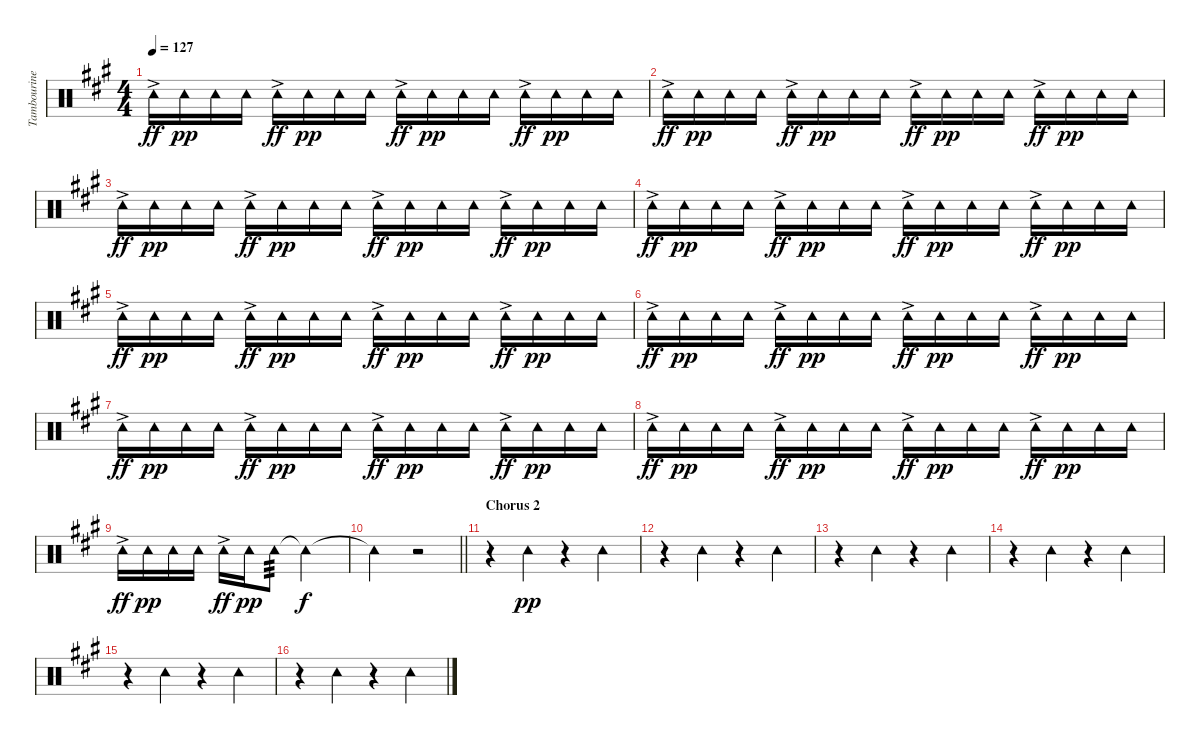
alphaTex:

\track ("Tambourine" "Tambourine") {instrument percussion}
\staff {score}
\articulation defaults
\ts (4 4)
\tempo 127
\clef neutral
\ks a "Tambourine (hit)"{ac}.16{dy ff} "Tambourine (hit)".16{dy pp} "Tambourine (hit)".16 "Tambourine (hit)".16 "Tambourine (hit)"{ac}.16{dy ff} "Tambourine (hit)".16{dy pp} "Tambourine (hit)".16 "Tambourine (hit)".16 "Tambourine (hit)"{ac}.16{dy ff} "Tambourine (hit)".16{dy pp} "Tambourine (hit)".16 "Tambourine (hit)".16 "Tambourine (hit)"{ac}.16{dy ff} "Tambourine (hit)".16{dy pp} "Tambourine (hit)".16 "Tambourine (hit)".16
|
"Tambourine (hit)"{ac}.16{dy ff} "Tambourine (hit)".16{dy pp} "Tambourine (hit)".16 "Tambourine (hit)".16 "Tambourine (hit)"{ac}.16{dy ff} "Tambourine (hit)".16{dy pp} "Tambourine (hit)".16 "Tambourine (hit)".16 "Tambourine (hit)"{ac}.16{dy ff} "Tambourine (hit)".16{dy pp} "Tambourine (hit)".16 "Tambourine (hit)".16 "Tambourine (hit)"{ac}.16{dy ff} "Tambourine (hit)".16{dy pp} "Tambourine (hit)".16 "Tambourine (hit)".16 |
"Tambourine (hit)"{ac}.16{dy ff} "Tambourine (hit)".16{dy pp} "Tambourine (hit)".16 "Tambourine (hit)".16 "Tambourine (hit)"{ac}.16{dy ff} "Tambourine (hit)".16{dy pp} "Tambourine (hit)".16 "Tambourine (hit)".16 "Tambourine (hit)"{ac}.16{dy ff} "Tambourine (hit)".16{dy pp} "Tambourine (hit)".16 "Tambourine (hit)".16 "Tambourine (hit)"{ac}.16{dy ff} "Tambourine (hit)".16{dy pp} "Tambourine (hit)".16 "Tambourine (hit)".16 |
"Tambourine (hit)"{ac}.16{dy ff} "Tambourine (hit)".16{dy pp} "Tambourine (hit)".16 "Tambourine (hit)".16 "Tambourine (hit)"{ac}.16{dy ff} "Tambourine (hit)".16{dy pp} "Tambourine (hit)".16 "Tambourine (hit)".16 "Tambourine (hit)"{ac}.16{dy ff} "Tambourine (hit)".16{dy pp} "Tambourine (hit)".16 "Tambourine (hit)".16 "Tambourine (hit)"{ac}.16{dy ff} "Tambourine (hit)".16{dy pp} "Tambourine (hit)".16 "Tambourine (hit)".16 |
"Tambourine (hit)"{ac}.16{dy ff} "Tambourine (hit)".16{dy pp} "Tambourine (hit)".16 "Tambourine (hit)".16 "Tambourine (hit)"{ac}.16{dy ff} "Tambourine (hit)".16{dy pp} "Tambourine (hit)".16 "Tambourine (hit)".16 "Tambourine (hit)"{ac}.16{dy ff} "Tambourine (hit)".16{dy pp} "Tambourine (hit)".16 "Tambourine (hit)".16 "Tambourine (hit)"{ac}.16{dy ff} "Tambourine (hit)".16{dy pp} "Tambourine (hit)".16 "Tambourine (hit)".16 |
"Tambourine (hit)"{ac}.16{dy ff} "Tambourine (hit)".16{dy pp} "Tambourine (hit)".16 "Tambourine (hit)".16 "Tambourine (hit)"{ac}.16{dy ff} "Tambourine (hit)".16{dy pp} "Tambourine (hit)".16 "Tambourine (hit)".16 "Tambourine (hit)"{ac}.16{dy ff} "Tambourine (hit)".16{dy pp} "Tambourine (hit)".16 "Tambourine (hit)".16 "Tambourine (hit)"{ac}.16{dy ff} "Tambourine (hit)".16{dy pp} "Tambourine (hit)".16 "Tambourine (hit)".16 |
"Tambourine (hit)"{ac}.16{dy ff} "Tambourine (hit)".16{dy pp} "Tambourine (hit)".16 "Tambourine (hit)".16 "Tambourine (hit)"{ac}.16{dy ff} "Tambourine (hit)".16{dy pp} "Tambourine (hit)".16 "Tambourine (hit)".16 "Tambourine (hit)"{ac}.16{dy ff} "Tambourine (hit)".16{dy pp} "Tambourine (hit)".16 "Tambourine (hit)".16 "Tambourine (hit)"{ac}.16{dy ff} "Tambourine (hit)".16{dy pp} "Tambourine (hit)".16 "Tambourine (hit)".16 |
"Tambourine (hit)"{ac}.16{dy ff} "Tambourine (hit)".16{dy pp} "Tambourine (hit)".16 "Tambourine (hit)".16 "Tambourine (hit)"{ac}.16{dy ff} "Tambourine (hit)".16{dy pp} "Tambourine (hit)".16 "Tambourine (hit)".16 "Tambourine (hit)"{ac}.16{dy ff} "Tambourine (hit)".16{dy pp} "Tambourine (hit)".16 "Tambourine (hit)".16 "Tambourine (hit)"{ac}.16{dy ff} "Tambourine (hit)".16{dy pp} "Tambourine (hit)".16 "Tambourine (hit)".16 |
"Tambourine (hit)"{ac}.16{dy ff} "Tambourine (hit)".16{dy pp} "Tambourine (hit)".16 "Tambourine (hit)".16 "Tambourine (hit)"{ac}.16{dy ff} "Tambourine (hit)".16{dy pp} "Tambourine (hit)".8{tp 3} "Tambourine (hit)"{t}.2{dy f} |
\barLineRight lightlight "Tambourine (hit)"{t}.2
r.2 |
\section ("" "Chorus 2")
r.4{volume 8} "Tambourine (hit)".4{dy pp} r.4 "Tambourine (hit)".4 |
r.4 "Tambourine (hit)".4 r.4 "Tambourine (hit)".4 |
r.4 "Tambourine (hit)".4 r.4 "Tambourine (hit)".4 |
r.4 "Tambourine (hit)".4 r.4 "Tambourine (hit)".4 |
r.4 "Tambourine (hit)".4 r.4 "Tambourine (hit)".4 |
r.4 "Tambourine (hit)".4 r.4 "Tambourine (hit)".4
